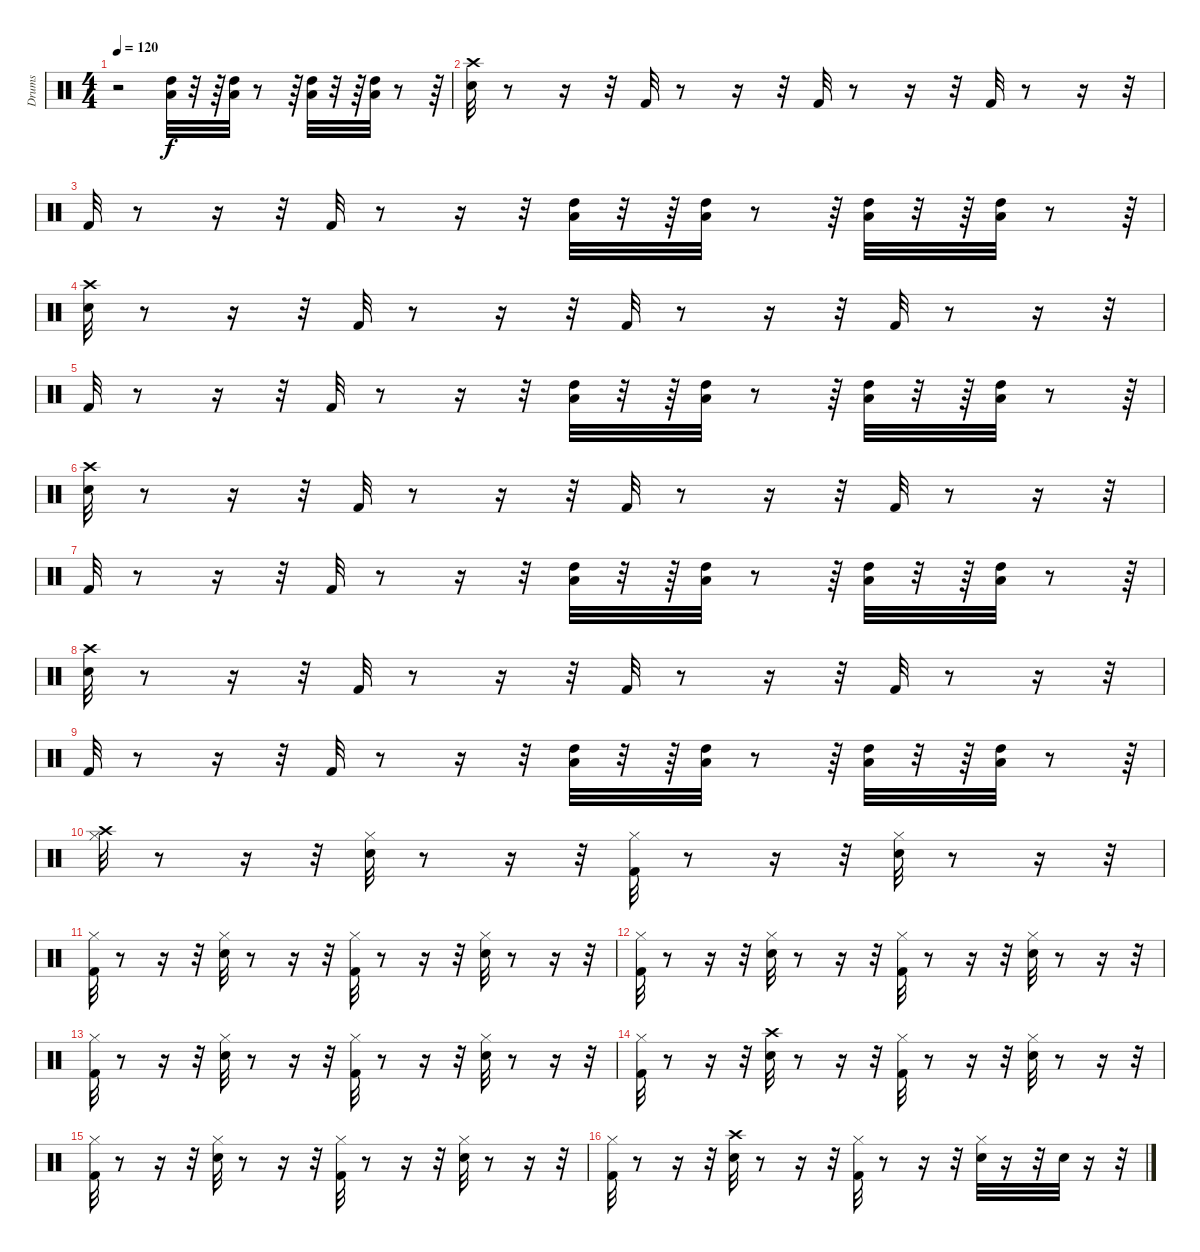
\track ("Drums" "Drums") {instrument percussion}
\staff {score}
\articulation defaults
\ts (4 4)
\tempo 120
\clef neutral
\ks c
r.2{dy f} ("Low Tom (hit)" "High Tom (hit)").32 r.32 r.64 ("Low Tom (hit)" "High Tom (hit)").32 r.8 r.64 ("Low Tom (hit)" "High Tom (hit)").32 r.32 r.64 ("High Tom (hit)" "Low Tom (hit)").32 r.8 r.64 |
("Snare (hit) 2" "Crash high (hit)").32 r.8 r.16 r.32 "Kick (hit) 2".32 r.8 r.16 r.32 "Kick (hit) 2".32 r.8 r.16 r.32 "Kick (hit) 2".32 r.8 r.16 r.32 |
"Kick (hit) 2".32 r.8 r.16 r.32 "Kick (hit) 2".32 r.8 r.16 r.32 ("High Tom (hit)" "Low Tom (hit)").32 r.32 r.64 ("High Tom (hit)" "Low Tom (hit)").32 r.8 r.64 ("Low Tom (hit)" "High Tom (hit)").32 r.32 r.64 ("Low Tom (hit)" "High Tom (hit)").32 r.8 r.64 |
("Snare (hit) 2" "Crash high (hit)").32 r.8 r.16 r.32 "Kick (hit) 2".32 r.8 r.16 r.32 "Kick (hit) 2".32 r.8 r.16 r.32 "Kick (hit) 2".32 r.8 r.16 r.32 |
"Kick (hit) 2".32 r.8 r.16 r.32 "Kick (hit) 2".32 r.8 r.16 r.32 ("High Tom (hit)" "Low Tom (hit)").32 r.32 r.64 ("High Tom (hit)" "Low Tom (hit)").32 r.8 r.64 ("Low Tom (hit)" "High Tom (hit)").32 r.32 r.64 ("Low Tom (hit)" "High Tom (hit)").32 r.8 r.64 |
("Snare (hit) 2" "Crash high (hit)").32 r.8 r.16 r.32 "Kick (hit) 2".32 r.8 r.16 r.32 "Kick (hit) 2".32 r.8 r.16 r.32 "Kick (hit) 2".32 r.8 r.16 r.32 |
"Kick (hit) 2".32 r.8 r.16 r.32 "Kick (hit) 2".32 r.8 r.16 r.32 ("High Tom (hit)" "Low Tom (hit)").32 r.32 r.64 ("High Tom (hit)" "Low Tom (hit)").32 r.8 r.64 ("Low Tom (hit)" "High Tom (hit)").32 r.32 r.64 ("Low Tom (hit)" "High Tom (hit)").32 r.8 r.64 |
("Snare (hit) 2" "Crash high (hit)").32 r.8 r.16 r.32 "Kick (hit) 2".32 r.8 r.16 r.32 "Kick (hit) 2".32 r.8 r.16 r.32 "Kick (hit) 2".32 r.8 r.16 r.32 |
"Kick (hit) 2".32 r.8 r.16 r.32 "Kick (hit) 2".32 r.8 r.16 r.32 ("High Tom (hit)" "Low Tom (hit)").32 r.32 r.64 ("High Tom (hit)" "Low Tom (hit)").32 r.8 r.64 ("Low Tom (hit)" "High Tom (hit)").32 r.32 r.64 ("Low Tom (hit)" "High Tom (hit)").32 r.8 r.64 |
("Hi-Hat (closed)" "Crash high (hit)").32 r.8 r.16 r.32 ("Hi-Hat (closed)" "Snare (hit) 2").32 r.8 r.16 r.32 ("Hi-Hat (closed)" "Kick (hit) 2").32 r.8 r.16 r.32 ("Hi-Hat (closed)" "Snare (hit) 2").32 r.8 r.16 r.32 |
("Hi-Hat (closed)" "Kick (hit) 2").32 r.8 r.16 r.32 ("Hi-Hat (closed)" "Snare (hit) 2").32 r.8 r.16 r.32 ("Hi-Hat (closed)" "Kick (hit) 2").32 r.8 r.16 r.32 ("Hi-Hat (closed)" "Snare (hit) 2").32 r.8 r.16 r.32 |
("Hi-Hat (closed)" "Kick (hit) 2").32 r.8 r.16 r.32 ("Hi-Hat (closed)" "Snare (hit) 2").32 r.8 r.16 r.32 ("Hi-Hat (closed)" "Kick (hit) 2").32 r.8 r.16 r.32 ("Hi-Hat (closed)" "Snare (hit) 2").32 r.8 r.16 r.32 |
("Hi-Hat (closed)" "Kick (hit) 2").32 r.8 r.16 r.32 ("Hi-Hat (closed)" "Snare (hit) 2").32 r.8 r.16 r.32 ("Hi-Hat (closed)" "Kick (hit) 2").32 r.8 r.16 r.32 ("Hi-Hat (closed)" "Snare (hit) 2").32 r.8 r.16 r.32 |
("Hi-Hat (closed)" "Kick (hit) 2").32 r.8 r.16 r.32 ("Snare (hit) 2" "Crash high (hit)").32 r.8 r.16 r.32 ("Kick (hit) 2" "Hi-Hat (closed)").32 r.8 r.16 r.32 ("Snare (hit) 2" "Hi-Hat (closed)").32 r.8 r.16 r.32 |
("Hi-Hat (closed)" "Kick (hit) 2").32 r.8 r.16 r.32 ("Hi-Hat (closed)" "Snare (hit) 2").32 r.8 r.16 r.32 ("Hi-Hat (closed)" "Kick (hit) 2").32 r.8 r.16 r.32 ("Snare (hit) 2" "Hi-Hat (closed)").32 r.8 r.16 r.32 |
("Hi-Hat (closed)" "Kick (hit) 2").32 r.8 r.16 r.32 ("Snare (hit) 2" "Crash high (hit)").32 r.8 r.16 r.32 ("Kick (hit) 2" "Hi-Hat (closed)").32 r.8 r.16 r.32 ("Snare (hit) 2" "Hi-Hat (closed)").32 r.16 r.32 "Snare (hit) 2".32 r.16 r.32
